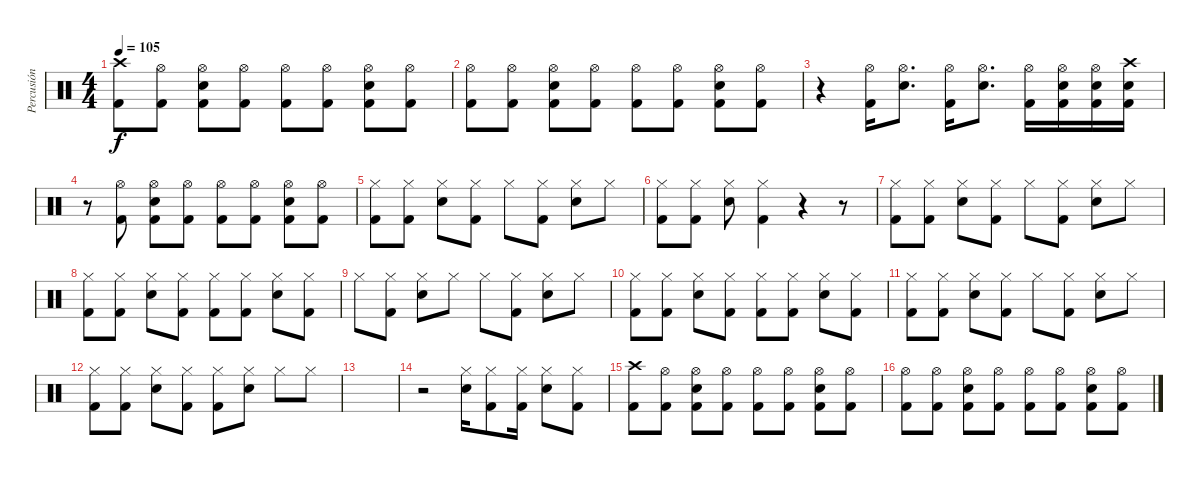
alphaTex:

\track ("Percusión" "Percusión") {instrument percussion}
\staff {score}
\articulation defaults
\ts (4 4)
\tempo 105
\clef neutral
\ks c
("Crash high (hit)" "Kick (hit) 2").8{dy f} ("Hi-Hat (open)" "Kick (hit) 2").8 ("Hi-Hat (open)" "Electric Snare (hit)" "Kick (hit) 2").8 ("Hi-Hat (open)" "Kick (hit) 2").8 ("Hi-Hat (open)" "Kick (hit) 2").8 ("Hi-Hat (open)" "Kick (hit) 2").8 ("Hi-Hat (open)" "Electric Snare (hit)" "Kick (hit) 2").8 ("Hi-Hat (open)" "Kick (hit) 2").8 |
("Hi-Hat (open)" "Kick (hit) 2").8 ("Hi-Hat (open)" "Kick (hit) 2").8 ("Hi-Hat (open)" "Electric Snare (hit)" "Kick (hit) 2").8 ("Hi-Hat (open)" "Kick (hit) 2").8 ("Hi-Hat (open)" "Kick (hit) 2").8 ("Hi-Hat (open)" "Kick (hit) 2").8 ("Hi-Hat (open)" "Electric Snare (hit)" "Kick (hit) 2").8 ("Hi-Hat (open)" "Kick (hit) 2").8 |
r.4 ("Hi-Hat (open)" "Kick (hit) 2").16 ("Hi-Hat (open)" "Electric Snare (hit)").8{d} ("Hi-Hat (open)" "Kick (hit) 2").16 ("Hi-Hat (open)" "Electric Snare (hit)").8{d} ("Hi-Hat (open)" "Kick (hit) 2").16 ("Hi-Hat (open)" "Electric Snare (hit)" "Kick (hit) 2").16 ("Hi-Hat (open)" "Electric Snare (hit)" "Kick (hit) 2").16 ("Crash high (hit)" "Electric Snare (hit)" "Kick (hit) 2").16 |
r.8 ("Hi-Hat (open)" "Kick (hit) 2").8 ("Hi-Hat (open)" "Electric Snare (hit)" "Kick (hit) 2").8 ("Hi-Hat (open)" "Kick (hit) 2").8 ("Hi-Hat (open)" "Kick (hit) 2").8 ("Hi-Hat (open)" "Kick (hit) 2").8 ("Hi-Hat (open)" "Electric Snare (hit)" "Kick (hit) 2").8 ("Hi-Hat (open)" "Kick (hit) 2").8 |
("Hi-Hat (closed)" "Kick (hit) 2").8 ("Hi-Hat (closed)" "Kick (hit) 2").8 ("Hi-Hat (closed)" "Electric Snare (hit)").8 ("Hi-Hat (closed)" "Kick (hit) 2").8 "Hi-Hat (closed)".8 ("Hi-Hat (closed)" "Kick (hit) 2").8 ("Hi-Hat (closed)" "Electric Snare (hit)").8 "Hi-Hat (closed)".8 |
("Hi-Hat (closed)" "Kick (hit) 2").8 ("Hi-Hat (closed)" "Kick (hit) 2").8 ("Hi-Hat (closed)" "Electric Snare (hit)").8 ("Hi-Hat (closed)" "Kick (hit) 2").4 r.4 r.8 |
("Hi-Hat (closed)" "Kick (hit) 2").8 ("Hi-Hat (closed)" "Kick (hit) 2").8 ("Hi-Hat (closed)" "Electric Snare (hit)").8 ("Hi-Hat (closed)" "Kick (hit) 2").8 "Hi-Hat (closed)".8 ("Hi-Hat (closed)" "Kick (hit) 2").8 ("Hi-Hat (closed)" "Electric Snare (hit)").8 "Hi-Hat (closed)".8 |
("Hi-Hat (closed)" "Kick (hit) 2").8 ("Hi-Hat (closed)" "Kick (hit) 2").8 ("Hi-Hat (closed)" "Electric Snare (hit)").8 ("Hi-Hat (closed)" "Kick (hit) 2").8 ("Hi-Hat (closed)" "Kick (hit) 2").8 ("Hi-Hat (closed)" "Kick (hit) 2").8 ("Hi-Hat (closed)" "Electric Snare (hit)").8 ("Hi-Hat (closed)" "Kick (hit) 2").8 |
"Hi-Hat (closed)".8 ("Hi-Hat (closed)" "Kick (hit) 2").8 ("Hi-Hat (closed)" "Electric Snare (hit)").8 "Hi-Hat (closed)".8 "Hi-Hat (closed)".8 ("Hi-Hat (closed)" "Kick (hit) 2").8 ("Hi-Hat (closed)" "Electric Snare (hit)").8 "Hi-Hat (closed)".8 |
("Hi-Hat (closed)" "Kick (hit) 2").8 ("Hi-Hat (closed)" "Kick (hit) 2").8 ("Hi-Hat (closed)" "Electric Snare (hit)").8 ("Hi-Hat (closed)" "Kick (hit) 2").8 ("Hi-Hat (closed)" "Kick (hit) 2").8 ("Hi-Hat (closed)" "Kick (hit) 2").8 ("Hi-Hat (closed)" "Electric Snare (hit)").8 ("Hi-Hat (closed)" "Kick (hit) 2").8 |
("Hi-Hat (closed)" "Kick (hit) 2").8 ("Hi-Hat (closed)" "Kick (hit) 2").8 ("Hi-Hat (closed)" "Electric Snare (hit)").8 ("Hi-Hat (closed)" "Kick (hit) 2").8 "Hi-Hat (closed)".8 ("Hi-Hat (closed)" "Kick (hit) 2").8 ("Hi-Hat (closed)" "Electric Snare (hit)").8 "Hi-Hat (closed)".8 |
("Hi-Hat (closed)" "Kick (hit) 2").8 ("Hi-Hat (closed)" "Kick (hit) 2").8 ("Hi-Hat (closed)" "Electric Snare (hit)").8 ("Hi-Hat (closed)" "Kick (hit) 2").8 ("Hi-Hat (closed)" "Kick (hit) 2").8 ("Hi-Hat (closed)" "Electric Snare (hit)").8 "Hi-Hat (closed)".8 "Hi-Hat (closed)".8 |
|
r.2 ("Hi-Hat (closed)" "Electric Snare (hit)").16 ("Hi-Hat (closed)" "Kick (hit) 2").8 ("Hi-Hat (closed)" "Kick (hit) 2").16 ("Hi-Hat (closed)" "Electric Snare (hit)").8 ("Hi-Hat (closed)" "Kick (hit) 2").8 |
("Crash high (hit)" "Kick (hit) 2").8 ("Hi-Hat (open)" "Kick (hit) 2").8 ("Hi-Hat (open)" "Electric Snare (hit)" "Kick (hit) 2").8 ("Hi-Hat (open)" "Kick (hit) 2").8 ("Hi-Hat (open)" "Kick (hit) 2").8 ("Hi-Hat (open)" "Kick (hit) 2").8 ("Hi-Hat (open)" "Electric Snare (hit)" "Kick (hit) 2").8 ("Hi-Hat (open)" "Kick (hit) 2").8 |
("Hi-Hat (open)" "Kick (hit) 2").8 ("Hi-Hat (open)" "Kick (hit) 2").8 ("Hi-Hat (open)" "Electric Snare (hit)" "Kick (hit) 2").8 ("Hi-Hat (open)" "Kick (hit) 2").8 ("Hi-Hat (open)" "Kick (hit) 2").8 ("Hi-Hat (open)" "Kick (hit) 2").8 ("Hi-Hat (open)" "Electric Snare (hit)" "Kick (hit) 2").8 ("Hi-Hat (open)" "Kick (hit) 2").8
